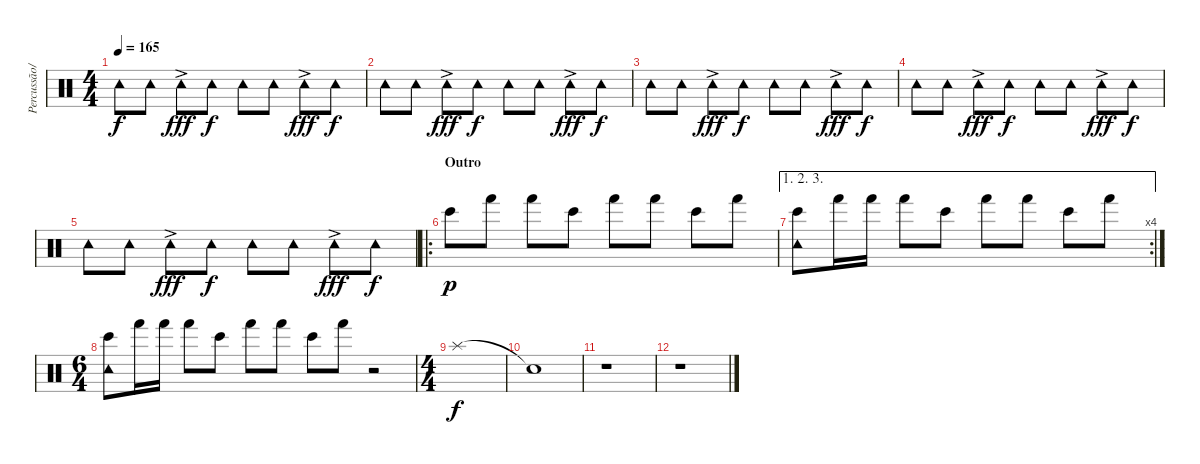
\track ("Percussão/DJ" "Percussão/") {instrument percussion}
\staff {score}
\articulation defaults
\ts (4 4)
\tempo 165
\clef neutral
\ks c "Tambourine (hit)".8{dy f} "Tambourine (hit)".8 "Tambourine (hit)"{ac}.8{dy fff} "Tambourine (hit)".8{dy f} "Tambourine (hit)".8 "Tambourine (hit)".8 "Tambourine (hit)"{ac}.8{dy fff} "Tambourine (hit)".8{dy f}
|
"Tambourine (hit)".8 "Tambourine (hit)".8 "Tambourine (hit)"{ac}.8{dy fff} "Tambourine (hit)".8{dy f} "Tambourine (hit)".8 "Tambourine (hit)".8 "Tambourine (hit)"{ac}.8{dy fff} "Tambourine (hit)".8{dy f} |
"Tambourine (hit)".8 "Tambourine (hit)".8 "Tambourine (hit)"{ac}.8{dy fff} "Tambourine (hit)".8{dy f} "Tambourine (hit)".8 "Tambourine (hit)".8 "Tambourine (hit)"{ac}.8{dy fff} "Tambourine (hit)".8{dy f} |
"Tambourine (hit)".8 "Tambourine (hit)".8 "Tambourine (hit)"{ac}.8{dy fff} "Tambourine (hit)".8{dy f} "Tambourine (hit)".8 "Tambourine (hit)".8 "Tambourine (hit)"{ac}.8{dy fff} "Tambourine (hit)".8{dy f} |
"Tambourine (hit)".8 "Tambourine (hit)".8 "Tambourine (hit)"{ac}.8{dy fff} "Tambourine (hit)".8{dy f} "Tambourine (hit)".8 "Tambourine (hit)".8 "Tambourine (hit)"{ac}.8{dy fff} "Tambourine (hit)".8{dy f} |
\ro
\section ("" "Outro")
"Bongo High (hit)".8{dy p} "Hand (hit)".8 "Hand (hit)".8 "Bongo High (hit)".8 "Hand (hit)".8 "Hand (hit)".8 "Bongo High (hit)".8 "Hand (hit)".8 |
\ae (1 2 3)
\rc 4
("Tambourine (hit)" "Bongo High (hit)").8 "Hand (hit)".16 "Hand (hit)".16 "Hand (hit)".8 "Bongo High (hit)".8 "Hand (hit)".8 "Hand (hit)".8 "Bongo High (hit)".8 "Hand (hit)".8 |
\ts (6 4)
("Tambourine (hit)" "Bongo High (hit)").8 "Hand (hit)".16 "Hand (hit)".16 "Hand (hit)".8 "Bongo High (hit)".8 "Hand (hit)".8 "Hand (hit)".8 "Bongo High (hit)".8 "Hand (hit)".8 r.2 |
\ts (4 4)
"Splash (hit)".1{dy f} |
"Snare (hit)"{t}.1 |
r.1 |
r.1
